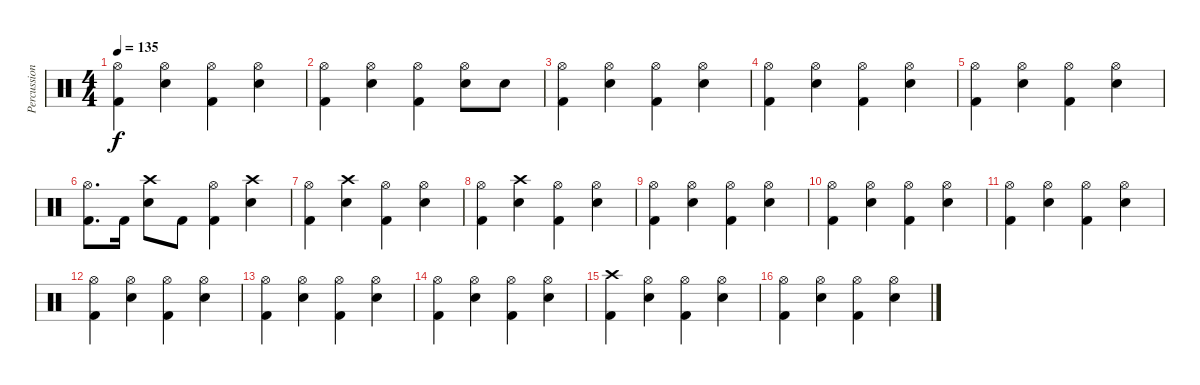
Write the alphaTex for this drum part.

\track ("Percussions" "Percussion") {instrument percussion}
\staff {score}
\articulation defaults
\ts (4 4)
\tempo 135
\clef neutral
\ks c
("Hi-Hat (open)" "Kick (hit) 2").4{dy f} ("Hi-Hat (open)" "Snare (hit) 2").4 ("Hi-Hat (open)" "Kick (hit) 2").4 ("Hi-Hat (open)" "Snare (hit) 2").4 |
("Hi-Hat (open)" "Kick (hit) 2").4 ("Hi-Hat (open)" "Snare (hit) 2").4 ("Hi-Hat (open)" "Kick (hit) 2").4 ("Hi-Hat (open)" "Snare (hit) 2").8 "Snare (hit) 2".8 |
("Hi-Hat (open)" "Kick (hit) 2").4 ("Hi-Hat (open)" "Snare (hit) 2").4 ("Hi-Hat (open)" "Kick (hit) 2").4 ("Hi-Hat (open)" "Snare (hit) 2").4 |
("Hi-Hat (open)" "Kick (hit) 2").4 ("Hi-Hat (open)" "Snare (hit) 2").4 ("Hi-Hat (open)" "Kick (hit) 2").4 ("Hi-Hat (open)" "Snare (hit) 2").4 |
("Hi-Hat (open)" "Kick (hit) 2").4 ("Hi-Hat (open)" "Snare (hit) 2").4 ("Hi-Hat (open)" "Kick (hit) 2").4 ("Hi-Hat (open)" "Snare (hit) 2").4 |
("Hi-Hat (open)" "Kick (hit) 2").8{d} "Kick (hit) 2".16 ("Crash high (hit)" "Snare (hit) 2").8 "Kick (hit) 2".8 ("Hi-Hat (open)" "Kick (hit) 2").4 ("Crash high (hit)" "Snare (hit) 2").4 |
("Hi-Hat (open)" "Kick (hit) 2").4 ("Crash high (hit)" "Snare (hit) 2").4 ("Hi-Hat (open)" "Kick (hit) 2").4 ("Hi-Hat (open)" "Snare (hit) 2").4 |
("Hi-Hat (open)" "Kick (hit) 2").4 ("Crash high (hit)" "Snare (hit) 2").4 ("Hi-Hat (open)" "Kick (hit) 2").4 ("Hi-Hat (open)" "Snare (hit) 2").4 |
("Hi-Hat (open)" "Kick (hit) 2").4 ("Hi-Hat (open)" "Snare (hit) 2").4 ("Hi-Hat (open)" "Kick (hit) 2").4 ("Hi-Hat (open)" "Snare (hit) 2").4 |
("Hi-Hat (open)" "Kick (hit) 2").4 ("Hi-Hat (open)" "Snare (hit) 2").4 ("Hi-Hat (open)" "Kick (hit) 2").4 ("Hi-Hat (open)" "Snare (hit) 2").4 |
("Hi-Hat (open)" "Kick (hit) 2").4 ("Hi-Hat (open)" "Snare (hit) 2").4 ("Hi-Hat (open)" "Kick (hit) 2").4 ("Hi-Hat (open)" "Snare (hit) 2").4 |
("Hi-Hat (open)" "Kick (hit) 2").4 ("Hi-Hat (open)" "Snare (hit) 2").4 ("Hi-Hat (open)" "Kick (hit) 2").4 ("Hi-Hat (open)" "Snare (hit) 2").4 |
("Hi-Hat (open)" "Kick (hit) 2").4 ("Hi-Hat (open)" "Snare (hit) 2").4 ("Hi-Hat (open)" "Kick (hit) 2").4 ("Hi-Hat (open)" "Snare (hit) 2").4 |
("Hi-Hat (open)" "Kick (hit) 2").4 ("Hi-Hat (open)" "Snare (hit) 2").4 ("Hi-Hat (open)" "Kick (hit) 2").4 ("Hi-Hat (open)" "Snare (hit) 2").4 |
("Crash high (hit)" "Kick (hit) 2").4 ("Hi-Hat (open)" "Snare (hit) 2").4 ("Hi-Hat (open)" "Kick (hit) 2").4 ("Hi-Hat (open)" "Snare (hit) 2").4 |
("Hi-Hat (open)" "Kick (hit) 2").4 ("Hi-Hat (open)" "Snare (hit) 2").4 ("Hi-Hat (open)" "Kick (hit) 2").4 ("Hi-Hat (open)" "Snare (hit) 2").4
